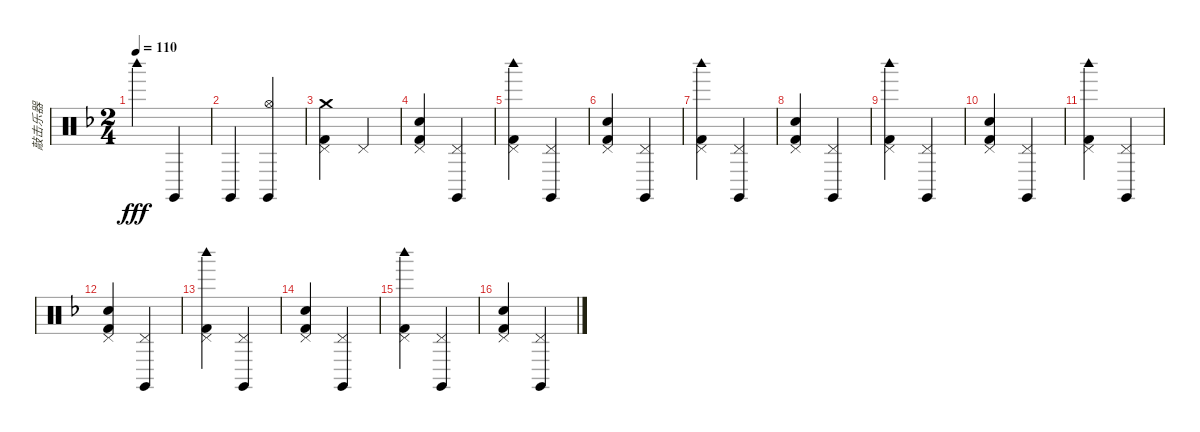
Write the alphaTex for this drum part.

\track ("敲击乐器" "敲击乐器") {instrument percussion}
\staff {score}
\articulation defaults
\ts (2 4)
\tempo 110
\clef neutral
\ks dminor "Woodblock high (hit)".4{dy fff} "Claves (hit)".4
|
"Claves (hit)".4 ("Hi-Hat (open)" "Claves (hit)").4 |
("Crash medium (hit)" "Pedal Hi-Hat (hit)" "Kick (hit) 2").4 "Pedal Hi-Hat (hit)".4 |
("Pedal Hi-Hat (hit)" "Electric Snare (hit)" "Kick (hit) 2").4 ("Pedal Hi-Hat (hit)" "Claves (hit)").4 |
("Pedal Hi-Hat (hit)" "Woodblock high (hit)" "Kick (hit) 2").4 ("Pedal Hi-Hat (hit)" "Claves (hit)").4 |
("Pedal Hi-Hat (hit)" "Hand Clap (hit)" "Kick (hit) 2").4 ("Pedal Hi-Hat (hit)" "Claves (hit)").4 |
("Pedal Hi-Hat (hit)" "Woodblock high (hit)" "Kick (hit) 2").4 ("Pedal Hi-Hat (hit)" "Claves (hit)").4 |
("Pedal Hi-Hat (hit)" "Electric Snare (hit)" "Kick (hit) 2").4 ("Pedal Hi-Hat (hit)" "Claves (hit)").4 |
("Pedal Hi-Hat (hit)" "Woodblock high (hit)" "Kick (hit) 2").4 ("Pedal Hi-Hat (hit)" "Claves (hit)").4 |
("Pedal Hi-Hat (hit)" "Hand Clap (hit)" "Kick (hit) 2").4 ("Pedal Hi-Hat (hit)" "Claves (hit)").4 |
("Pedal Hi-Hat (hit)" "Woodblock high (hit)" "Kick (hit) 2").4 ("Pedal Hi-Hat (hit)" "Claves (hit)").4 |
("Pedal Hi-Hat (hit)" "Electric Snare (hit)" "Kick (hit) 2").4 ("Pedal Hi-Hat (hit)" "Claves (hit)").4 |
("Pedal Hi-Hat (hit)" "Woodblock high (hit)" "Kick (hit) 2").4 ("Pedal Hi-Hat (hit)" "Claves (hit)").4 |
("Pedal Hi-Hat (hit)" "Hand Clap (hit)" "Kick (hit) 2").4 ("Pedal Hi-Hat (hit)" "Claves (hit)").4 |
("Pedal Hi-Hat (hit)" "Woodblock high (hit)" "Kick (hit) 2").4 ("Pedal Hi-Hat (hit)" "Claves (hit)").4 |
("Pedal Hi-Hat (hit)" "Electric Snare (hit)" "Kick (hit) 2").4 ("Pedal Hi-Hat (hit)" "Claves (hit)").4
